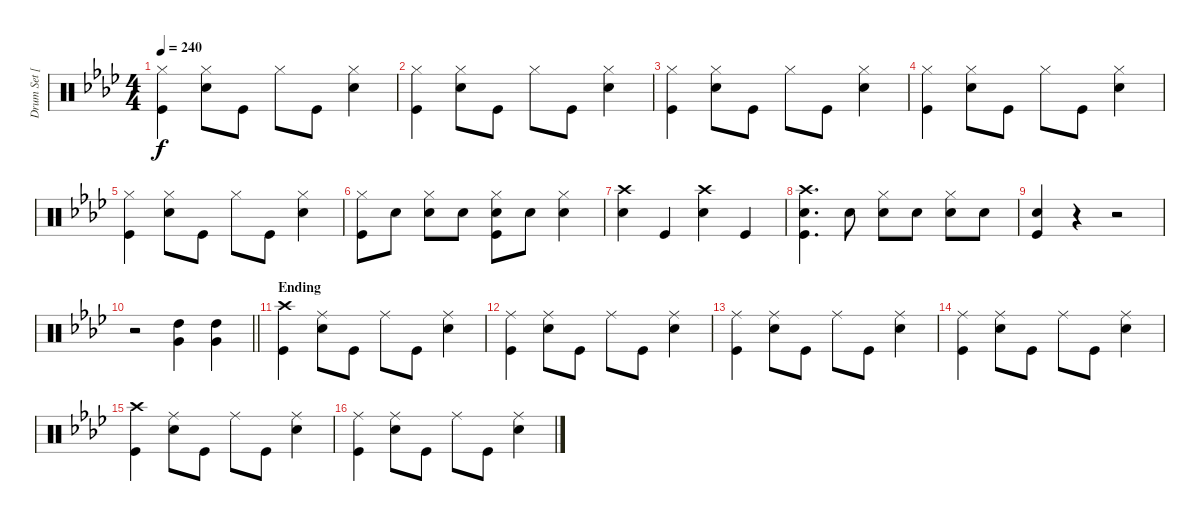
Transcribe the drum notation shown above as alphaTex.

\track ("Drum Set [Ritsu]" "Drum Set [") {instrument percussion}
\staff {score}
\articulation defaults
\ts (4 4)
\tempo 240
\clef neutral
\ks ab
("Hi-Hat (closed)" "Kick (hit)").4{dy f} ("Hi-Hat (closed)" "Snare (hit) 2").8 "Kick (hit)".8 "Hi-Hat (closed)".8 "Kick (hit)".8 ("Hi-Hat (closed)" "Snare (hit) 2").4 |
("Hi-Hat (closed)" "Kick (hit)").4 ("Hi-Hat (closed)" "Snare (hit) 2").8 "Kick (hit)".8 "Hi-Hat (closed)".8 "Kick (hit)".8 ("Hi-Hat (closed)" "Snare (hit) 2").4 |
("Hi-Hat (closed)" "Kick (hit)").4 ("Hi-Hat (closed)" "Snare (hit) 2").8 "Kick (hit)".8 "Hi-Hat (closed)".8 "Kick (hit)".8 ("Hi-Hat (closed)" "Snare (hit) 2").4 |
("Hi-Hat (closed)" "Kick (hit)").4 ("Hi-Hat (closed)" "Snare (hit) 2").8 "Kick (hit)".8 "Hi-Hat (closed)".8 "Kick (hit)".8 ("Hi-Hat (closed)" "Snare (hit) 2").4 |
("Hi-Hat (closed)" "Kick (hit)").4 ("Hi-Hat (closed)" "Snare (hit) 2").8 "Kick (hit)".8 "Hi-Hat (closed)".8 "Kick (hit)".8 ("Hi-Hat (closed)" "Snare (hit) 2").4 |
("Hi-Hat (closed)" "Kick (hit)").8 "Snare (hit) 2".8 ("Hi-Hat (closed)" "Snare (hit) 2").8 "Snare (hit) 2".8 ("Hi-Hat (closed)" "Snare (hit) 2" "Kick (hit)").8 "Snare (hit) 2".8 ("Hi-Hat (closed)" "Snare (hit) 2").4 |
("Crash high (hit)" "Snare (hit) 2").4 "Kick (hit)".4 ("Crash high (hit)" "Snare (hit) 2").4 "Kick (hit)".4 |
("Crash high (hit)" "Snare (hit) 2" "Kick (hit)").4{d} "Snare (hit) 2".8 ("Hi-Hat (closed)" "Snare (hit) 2").8 "Snare (hit) 2".8 ("Hi-Hat (closed)" "Snare (hit) 2").8 "Snare (hit) 2".8 |
("Snare (hit) 2" "Kick (hit)").4 r.4 r.2 |
\barLineRight lightlight
r.2 ("High Tom (hit)" "Very Low Tom (hit)").4 ("High Tom (hit)" "Very Low Tom (hit)").4 |
\section ("" "Ending")
("Crash high (hit)" "Kick (hit)").4 ("Ride (middle)" "Snare (hit) 2").8 "Kick (hit)".8 "Ride (middle)".8 "Kick (hit)".8 ("Ride (middle)" "Snare (hit) 2").4 |
("Ride (middle)" "Kick (hit)").4 ("Ride (middle)" "Snare (hit) 2").8 "Kick (hit)".8 "Ride (middle)".8 "Kick (hit)".8 ("Ride (middle)" "Snare (hit) 2").4 |
("Ride (middle)" "Kick (hit)").4 ("Ride (middle)" "Snare (hit) 2").8 "Kick (hit)".8 "Ride (middle)".8 "Kick (hit)".8 ("Ride (middle)" "Snare (hit) 2").4 |
("Ride (middle)" "Kick (hit)").4 ("Ride (middle)" "Snare (hit) 2").8 "Kick (hit)".8 "Ride (middle)".8 "Kick (hit)".8 ("Ride (middle)" "Snare (hit) 2").4 |
("Crash high (hit)" "Kick (hit)").4 ("Ride (middle)" "Snare (hit) 2").8 "Kick (hit)".8 "Ride (middle)".8 "Kick (hit)".8 ("Ride (middle)" "Snare (hit) 2").4 |
("Ride (middle)" "Kick (hit)").4 ("Ride (middle)" "Snare (hit) 2").8 "Kick (hit)".8 "Ride (middle)".8 "Kick (hit)".8 ("Ride (middle)" "Snare (hit) 2").4
